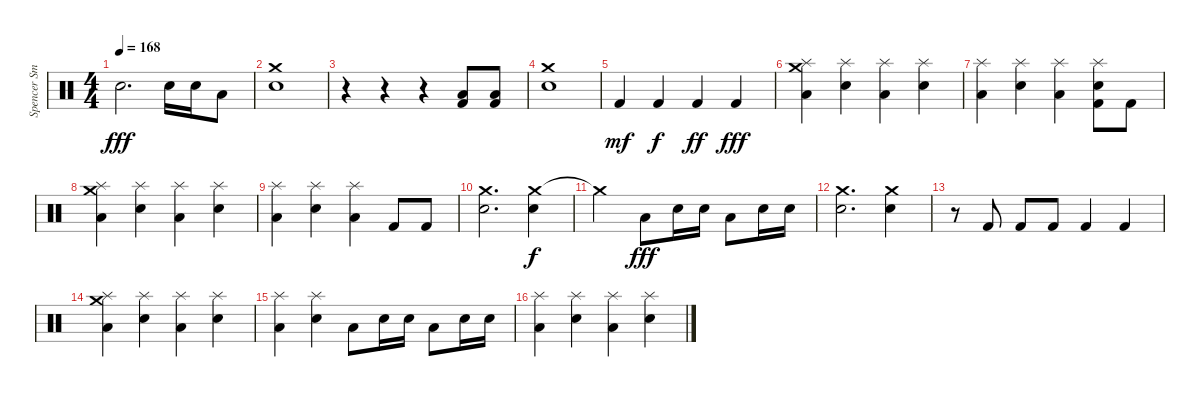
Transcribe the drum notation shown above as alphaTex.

\track ("Spencer Smith" "Spencer Sm") {instrument percussion}
\staff {score}
\articulation defaults
\ts (4 4)
\tempo 168
\clef neutral
\ks c "Snare (hit) 2".2{d dy fff} "Electric Snare (hit)".16 "Electric Snare (hit)".16 "Low Floor Tom (hit)".8
|
("Crash medium (hit)" "Snare (hit) 2").1 |
r.4 r.4 r.4 ("Kick (hit) 2" "Low Floor Tom (hit)").8 ("Kick (hit) 2" "Low Floor Tom (hit)").8 |
("Crash medium (hit)" "Snare (hit) 2").1 |
"Kick (hit) 2".4{dy mf} "Kick (hit) 2".4{dy f} "Kick (hit) 2".4{dy ff} "Kick (hit) 2".4{dy fff} |
("Crash medium (hit)" "Splash (hit)" "Low Floor Tom (hit)").4 ("Splash (hit)" "Electric Snare (hit)").4 ("Splash (hit)" "Low Floor Tom (hit)").4 ("Splash (hit)" "Electric Snare (hit)").4 |
("Splash (hit)" "Low Floor Tom (hit)").4 ("Splash (hit)" "Electric Snare (hit)").4 ("Splash (hit)" "Low Floor Tom (hit)").4 ("Splash (hit)" "Electric Snare (hit)" "Kick (hit) 2").8 "Kick (hit) 2".8 |
("Crash medium (hit)" "Splash (hit)" "Low Floor Tom (hit)").4 ("Splash (hit)" "Electric Snare (hit)").4 ("Splash (hit)" "Low Floor Tom (hit)").4 ("Splash (hit)" "Electric Snare (hit)").4 |
("Splash (hit)" "Low Floor Tom (hit)").4 ("Splash (hit)" "Electric Snare (hit)").4 ("Splash (hit)" "Low Floor Tom (hit)").4 "Kick (hit) 2".8 "Kick (hit) 2".8 |
("Crash medium (hit)" "Snare (hit) 2").2{d} ("Crash medium (hit)" "Snare (hit) 2").4{dy f} |
"Crash medium (hit)"{t}.2 "Low Floor Tom (hit)".8{dy fff} "Electric Snare (hit)".16 "Electric Snare (hit)".16 "Low Floor Tom (hit)".8 "Electric Snare (hit)".16 "Electric Snare (hit)".16 |
("Crash medium (hit)" "Snare (hit) 2").2{d} ("Crash medium (hit)" "Snare (hit) 2").4 |
r.8 "Kick (hit) 2".8 "Kick (hit) 2".8 "Kick (hit) 2".8 "Kick (hit) 2".4 "Kick (hit) 2".4 |
("Crash medium (hit)" "Splash (hit)" "Low Floor Tom (hit)").4 ("Splash (hit)" "Electric Snare (hit)").4 ("Splash (hit)" "Low Floor Tom (hit)").4 ("Splash (hit)" "Electric Snare (hit)").4 |
("Splash (hit)" "Low Floor Tom (hit)").4 ("Splash (hit)" "Electric Snare (hit)").4 "Low Floor Tom (hit)".8 "Electric Snare (hit)".16 "Electric Snare (hit)".16 "Low Floor Tom (hit)".8 "Electric Snare (hit)".16 "Electric Snare (hit)".16 |
("Splash (hit)" "Low Floor Tom (hit)").4 ("Splash (hit)" "Electric Snare (hit)").4 ("Splash (hit)" "Low Floor Tom (hit)").4 ("Splash (hit)" "Electric Snare (hit)").4
